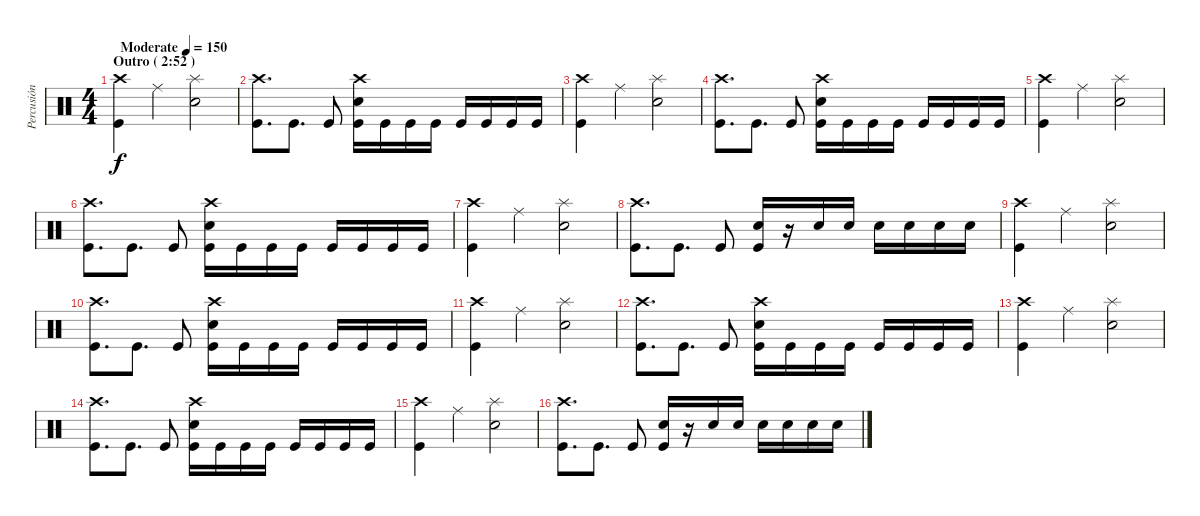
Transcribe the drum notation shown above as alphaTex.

\track ("Percusión" "Percusión") {instrument percussion}
\staff {score}
\articulation defaults
\ts (4 4)
\section ("" "Outro ( 2:52 )")
\tempo (150 "Moderate")
\clef neutral
\ks c
("Crash high (hit)" "Kick (hit)").4{dy f} "Ride (middle)".4 ("Splash (hit)" "Snare (hit) 2").2 |
("Crash high (hit)" "Kick (hit)").8{d} "Kick (hit)".8{d} "Kick (hit)".8 ("Crash high (hit)" "Snare (hit) 2" "Kick (hit)").16 "Kick (hit)".16 "Kick (hit)".16 "Kick (hit)".16 "Kick (hit)".16 "Kick (hit)".16 "Kick (hit)".16 "Kick (hit)".16 |
("Crash high (hit)" "Kick (hit)").4 "Ride (middle)".4 ("Splash (hit)" "Snare (hit) 2").2 |
("Crash high (hit)" "Kick (hit)").8{d} "Kick (hit)".8{d} "Kick (hit)".8 ("Crash high (hit)" "Snare (hit) 2" "Kick (hit)").16 "Kick (hit)".16 "Kick (hit)".16 "Kick (hit)".16 "Kick (hit)".16 "Kick (hit)".16 "Kick (hit)".16 "Kick (hit)".16 |
("Crash high (hit)" "Kick (hit)").4 "Ride (middle)".4 ("Splash (hit)" "Snare (hit) 2").2 |
("Crash high (hit)" "Kick (hit)").8{d} "Kick (hit)".8{d} "Kick (hit)".8 ("Crash high (hit)" "Snare (hit) 2" "Kick (hit)").16 "Kick (hit)".16 "Kick (hit)".16 "Kick (hit)".16 "Kick (hit)".16 "Kick (hit)".16 "Kick (hit)".16 "Kick (hit)".16 |
("Crash high (hit)" "Kick (hit)").4 "Ride (middle)".4 ("Splash (hit)" "Snare (hit) 2").2 |
("Crash high (hit)" "Kick (hit)").8{d} "Kick (hit)".8{d} "Kick (hit)".8 ("Snare (hit) 2" "Kick (hit)").16 r.16 "Snare (hit) 2".16 "Snare (hit) 2".16 "Snare (hit) 2".16 "Snare (hit) 2".16 "Snare (hit) 2".16 "Snare (hit) 2".16 |
("Crash high (hit)" "Kick (hit)").4 "Ride (middle)".4 ("Splash (hit)" "Snare (hit) 2").2 |
("Crash high (hit)" "Kick (hit)").8{d} "Kick (hit)".8{d} "Kick (hit)".8 ("Crash high (hit)" "Snare (hit) 2" "Kick (hit)").16 "Kick (hit)".16 "Kick (hit)".16 "Kick (hit)".16 "Kick (hit)".16 "Kick (hit)".16 "Kick (hit)".16 "Kick (hit)".16 |
("Crash high (hit)" "Kick (hit)").4 "Ride (middle)".4 ("Splash (hit)" "Snare (hit) 2").2 |
("Crash high (hit)" "Kick (hit)").8{d} "Kick (hit)".8{d} "Kick (hit)".8 ("Crash high (hit)" "Snare (hit) 2" "Kick (hit)").16 "Kick (hit)".16 "Kick (hit)".16 "Kick (hit)".16 "Kick (hit)".16 "Kick (hit)".16 "Kick (hit)".16 "Kick (hit)".16 |
("Crash high (hit)" "Kick (hit)").4 "Ride (middle)".4 ("Splash (hit)" "Snare (hit) 2").2 |
("Crash high (hit)" "Kick (hit)").8{d} "Kick (hit)".8{d} "Kick (hit)".8 ("Crash high (hit)" "Snare (hit) 2" "Kick (hit)").16 "Kick (hit)".16 "Kick (hit)".16 "Kick (hit)".16 "Kick (hit)".16 "Kick (hit)".16 "Kick (hit)".16 "Kick (hit)".16 |
("Crash high (hit)" "Kick (hit)").4 "Ride (middle)".4 ("Splash (hit)" "Snare (hit) 2").2 |
("Crash high (hit)" "Kick (hit)").8{d} "Kick (hit)".8{d} "Kick (hit)".8 ("Snare (hit) 2" "Kick (hit)").16 r.16 "Snare (hit) 2".16 "Snare (hit) 2".16 "Snare (hit) 2".16 "Snare (hit) 2".16 "Snare (hit) 2".16 "Snare (hit) 2".16
